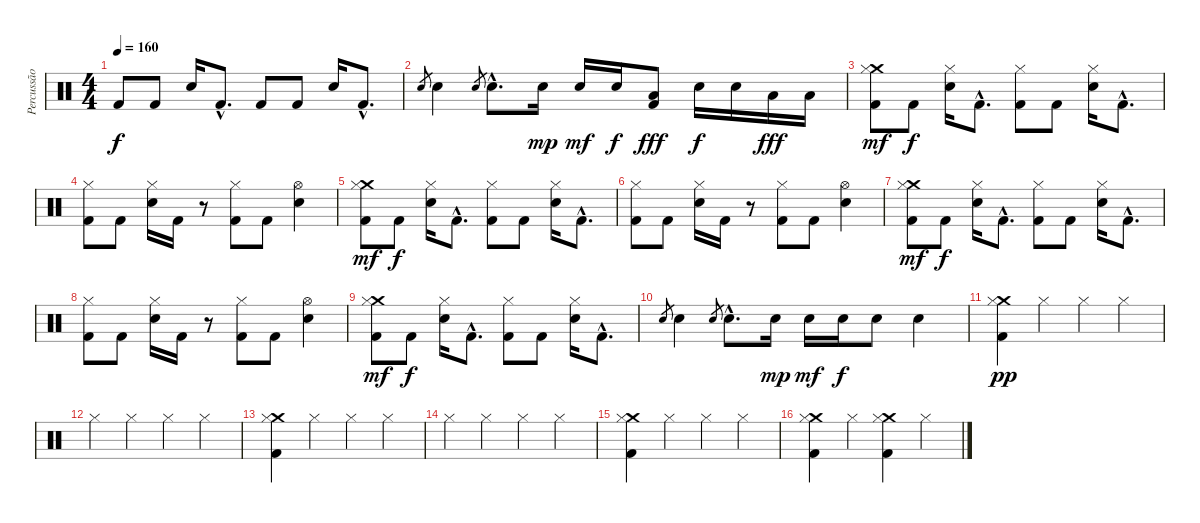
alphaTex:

\track ("Percussão" "Percussão") {instrument percussion}
\staff {score}
\articulation defaults
\ts (4 4)
\tempo 160
\clef neutral
\ks c "Kick (hit) 2".8{dy f} "Kick (hit) 2".8 "Snare (hit) 2".16 "Kick (hit) 2"{hac}.8{d} "Kick (hit) 2".8 "Kick (hit) 2".8 "Snare (hit) 2".16 "Kick (hit) 2"{hac}.8{d}
|
"Snare (hit) 2".8{gr} "Snare (hit) 2".4 "Snare (hit) 2".8{gr} "Snare (hit) 2"{hac}.8{d} "Snare (hit) 2".16{dy mp} "Snare (hit) 2".16{dy mf} "Snare (hit) 2".16{dy f} ("Low Tom (hit)" "Kick (hit) 2").8{dy fff} "Snare (hit) 2".16{dy f} "Snare (hit) 2".16 "Low Tom (hit)".16{dy fff} "Low Tom (hit)".16 |
("Crash medium (hit)" "Hi-Hat (closed)" "Kick (hit) 2").8{dy mf} "Kick (hit) 2".8{dy f} ("Hi-Hat (closed)" "Snare (hit) 2").16 "Kick (hit) 2"{hac}.8{d} ("Hi-Hat (closed)" "Kick (hit) 2").8 "Kick (hit) 2".8 ("Hi-Hat (closed)" "Snare (hit) 2").16 "Kick (hit) 2"{hac}.8{d} |
("Hi-Hat (closed)" "Kick (hit) 2").8 "Kick (hit) 2".8 ("Hi-Hat (closed)" "Snare (hit) 2").16 "Kick (hit) 2".16 r.8 ("Hi-Hat (closed)" "Kick (hit) 2").8 "Kick (hit) 2".8 ("Hi-Hat (open)" "Snare (hit) 2").4 |
("Crash medium (hit)" "Hi-Hat (closed)" "Kick (hit) 2").8{dy mf} "Kick (hit) 2".8{dy f} ("Hi-Hat (closed)" "Snare (hit) 2").16 "Kick (hit) 2"{hac}.8{d} ("Hi-Hat (closed)" "Kick (hit) 2").8 "Kick (hit) 2".8 ("Hi-Hat (closed)" "Snare (hit) 2").16 "Kick (hit) 2"{hac}.8{d} |
("Hi-Hat (closed)" "Kick (hit) 2").8 "Kick (hit) 2".8 ("Hi-Hat (closed)" "Snare (hit) 2").16 "Kick (hit) 2".16 r.8 ("Hi-Hat (closed)" "Kick (hit) 2").8 "Kick (hit) 2".8 ("Hi-Hat (open)" "Snare (hit) 2").4 |
("Crash medium (hit)" "Hi-Hat (closed)" "Kick (hit) 2").8{dy mf} "Kick (hit) 2".8{dy f} ("Hi-Hat (closed)" "Snare (hit) 2").16 "Kick (hit) 2"{hac}.8{d} ("Hi-Hat (closed)" "Kick (hit) 2").8 "Kick (hit) 2".8 ("Hi-Hat (closed)" "Snare (hit) 2").16 "Kick (hit) 2"{hac}.8{d} |
("Hi-Hat (closed)" "Kick (hit) 2").8 "Kick (hit) 2".8 ("Hi-Hat (closed)" "Snare (hit) 2").16 "Kick (hit) 2".16 r.8 ("Hi-Hat (closed)" "Kick (hit) 2").8 "Kick (hit) 2".8 ("Hi-Hat (open)" "Snare (hit) 2").4 |
("Crash medium (hit)" "Hi-Hat (closed)" "Kick (hit) 2").8{dy mf} "Kick (hit) 2".8{dy f} ("Hi-Hat (closed)" "Snare (hit) 2").16 "Kick (hit) 2"{hac}.8{d} ("Hi-Hat (closed)" "Kick (hit) 2").8 "Kick (hit) 2".8 ("Hi-Hat (closed)" "Snare (hit) 2").16 "Kick (hit) 2"{hac}.8{d} |
"Snare (hit) 2".8{gr} "Snare (hit) 2".4 "Snare (hit) 2".8{gr} "Snare (hit) 2"{hac}.8{d} "Snare (hit) 2".16{dy mp} "Snare (hit) 2".16{dy mf} "Snare (hit) 2".16{dy f} "Snare (hit) 2".8 "Snare (hit) 2".4 |
("Crash medium (hit)" "Hi-Hat (closed)" "Kick (hit) 2").4{dy pp} "Hi-Hat (closed)".4 "Hi-Hat (closed)".4 "Hi-Hat (closed)".4 |
"Hi-Hat (closed)".4 "Hi-Hat (closed)".4 "Hi-Hat (closed)".4 "Hi-Hat (closed)".4 |
("Crash medium (hit)" "Hi-Hat (closed)" "Kick (hit) 2").4 "Hi-Hat (closed)".4 "Hi-Hat (closed)".4 "Hi-Hat (closed)".4 |
"Hi-Hat (closed)".4 "Hi-Hat (closed)".4 "Hi-Hat (closed)".4 "Hi-Hat (closed)".4 |
("Crash medium (hit)" "Hi-Hat (closed)" "Kick (hit) 2").4 "Hi-Hat (closed)".4 "Hi-Hat (closed)".4 "Hi-Hat (closed)".4 |
("Crash medium (hit)" "Hi-Hat (closed)" "Kick (hit) 2").4 "Hi-Hat (closed)".4 ("Crash medium (hit)" "Hi-Hat (closed)" "Kick (hit) 2").4 "Hi-Hat (closed)".4
